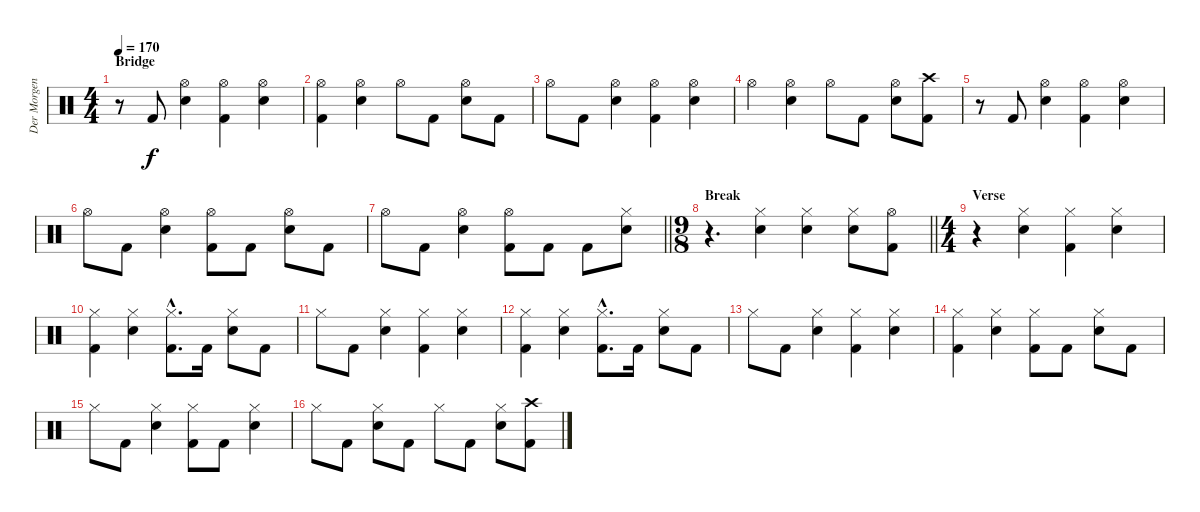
\track ("Der Morgenstern" "Der Morgen") {instrument percussion}
\staff {score}
\articulation defaults
\ts (4 4)
\section ("" "Bridge")
\tempo 170
\clef neutral
\ks c
r.8{dy f} "Kick (hit) 2".8 ("Hi-Hat (open)" "Electric Snare (hit)").4 ("Hi-Hat (open)" "Kick (hit) 2").4 ("Hi-Hat (open)" "Electric Snare (hit)").4 |
("Hi-Hat (open)" "Kick (hit) 2").4 ("Hi-Hat (open)" "Electric Snare (hit)").4 "Hi-Hat (open)".8 "Kick (hit) 2".8 ("Hi-Hat (open)" "Electric Snare (hit)").8 "Kick (hit) 2".8 |
"Hi-Hat (open)".8 "Kick (hit) 2".8 ("Hi-Hat (open)" "Electric Snare (hit)").4 ("Hi-Hat (open)" "Kick (hit) 2").4 ("Hi-Hat (open)" "Electric Snare (hit)").4 |
"Hi-Hat (open)".4 ("Hi-Hat (open)" "Electric Snare (hit)").4 "Hi-Hat (open)".8 "Kick (hit) 2".8 ("Hi-Hat (open)" "Electric Snare (hit)").8 ("Crash high (hit)" "Kick (hit) 2").8 |
r.8 "Kick (hit) 2".8 ("Hi-Hat (open)" "Electric Snare (hit)").4 ("Hi-Hat (open)" "Kick (hit) 2").4 ("Hi-Hat (open)" "Electric Snare (hit)").4 |
"Hi-Hat (open)".8 "Kick (hit) 2".8 ("Hi-Hat (open)" "Electric Snare (hit)").4 ("Hi-Hat (open)" "Kick (hit) 2").8 "Kick (hit) 2".8 ("Hi-Hat (open)" "Electric Snare (hit)").8 "Kick (hit) 2".8 |
\barLineRight lightlight "Hi-Hat (open)".8 "Kick (hit) 2".8
("Hi-Hat (open)" "Electric Snare (hit)").4 ("Hi-Hat (open)" "Kick (hit) 2").8 "Kick (hit) 2".8 "Kick (hit) 2".8 ("Hi-Hat (closed)" "Electric Snare (hit)").8 |
\ts (9 8)
\section ("" "Break")
\barLineRight lightlight
r.4{d} ("Hi-Hat (closed)" "Electric Snare (hit)").4 ("Hi-Hat (closed)" "Electric Snare (hit)").4 ("Hi-Hat (closed)" "Electric Snare (hit)").8 ("Hi-Hat (open)" "Kick (hit) 2").8 |
\ts (4 4)
\section ("" "Verse")
r.4 ("Hi-Hat (closed)" "Electric Snare (hit)").4 ("Hi-Hat (closed)" "Kick (hit) 2").4 ("Hi-Hat (closed)" "Electric Snare (hit)").4 |
("Hi-Hat (closed)" "Kick (hit) 2").4 ("Hi-Hat (closed)" "Electric Snare (hit)").4 ("Hi-Hat (closed)"{hac} "Kick (hit) 2"{hac}).8{d} "Kick (hit) 2".16 ("Hi-Hat (closed)" "Electric Snare (hit)").8 "Kick (hit) 2".8 |
"Hi-Hat (closed)".8 "Kick (hit) 2".8 ("Hi-Hat (closed)" "Electric Snare (hit)").4 ("Hi-Hat (closed)" "Kick (hit) 2").4 ("Hi-Hat (closed)" "Electric Snare (hit)").4 |
("Hi-Hat (closed)" "Kick (hit) 2").4 ("Hi-Hat (closed)" "Electric Snare (hit)").4 ("Hi-Hat (closed)"{hac} "Kick (hit) 2"{hac}).8{d} "Kick (hit) 2".16 ("Hi-Hat (closed)" "Electric Snare (hit)").8 "Kick (hit) 2".8 |
"Hi-Hat (closed)".8 "Kick (hit) 2".8 ("Hi-Hat (closed)" "Electric Snare (hit)").4 ("Hi-Hat (closed)" "Kick (hit) 2").4 ("Hi-Hat (closed)" "Electric Snare (hit)").4 |
("Hi-Hat (closed)" "Kick (hit) 2").4 ("Hi-Hat (closed)" "Electric Snare (hit)").4 ("Hi-Hat (closed)" "Kick (hit) 2").8 "Kick (hit) 2".8 ("Hi-Hat (closed)" "Electric Snare (hit)").8 "Kick (hit) 2".8 |
"Hi-Hat (closed)".8 "Kick (hit) 2".8 ("Hi-Hat (closed)" "Electric Snare (hit)").4 ("Hi-Hat (closed)" "Kick (hit) 2").8 "Kick (hit) 2".8 ("Hi-Hat (closed)" "Electric Snare (hit)").4 |
"Hi-Hat (closed)".8 "Kick (hit) 2".8 ("Hi-Hat (closed)" "Electric Snare (hit)").8 "Kick (hit) 2".8 "Hi-Hat (closed)".8 "Kick (hit) 2".8 ("Hi-Hat (closed)" "Electric Snare (hit)").8 ("Crash high (hit)" "Kick (hit) 2").8
